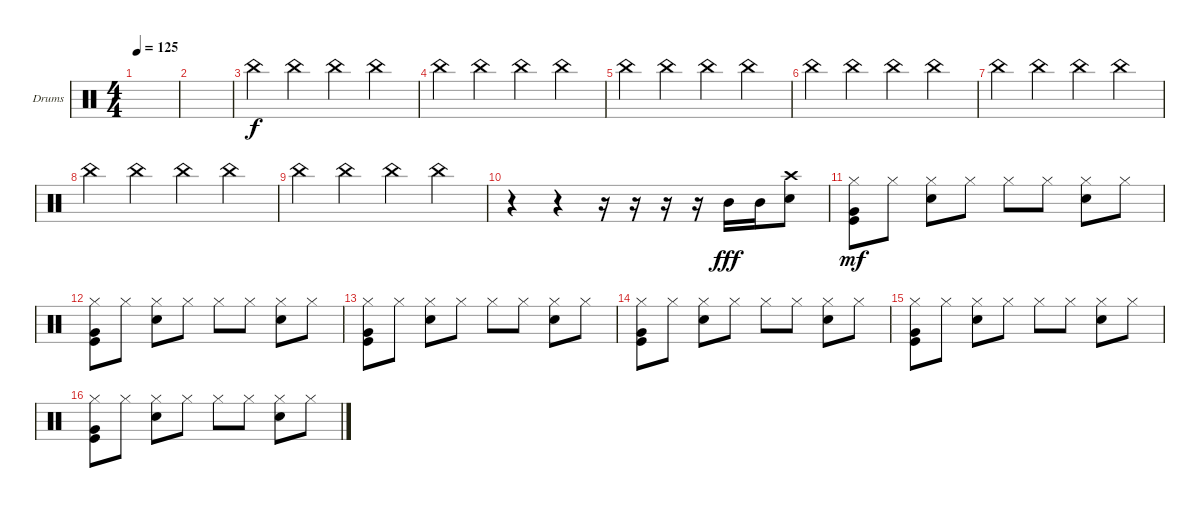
\defaultSystemsLayout 4
\bracketExtendMode groupsimilarinstruments
\firstSystemTrackNameOrientation horizontal
\otherSystemsTrackNameOrientation horizontal
\track ("Drumkit" "Drums") {instrument percussion}
\staff {score}
\articulation defaults
\ts (4 4)
\tempo 125
\clef neutral
\ks c
|
|
\scale
0.474178 "China (hit)".4 "China (hit)".4 "China (hit)".4 "China (hit)".4 |
\scale
0.262911 "China (hit)".4 "China (hit)".4 "China (hit)".4 "China (hit)".4 |
\scale
0.262911 "China (hit)".4 "China (hit)".4 "China (hit)".4 "China (hit)".4 |
\scale
0.333333 "China (hit)".4 "China (hit)".4 "China (hit)".4 "China (hit)".4 |
\scale
0.333333 "China (hit)".4 "China (hit)".4 "China (hit)".4 "China (hit)".4 |
\scale
0.333333 "China (hit)".4 "China (hit)".4 "China (hit)".4 "China (hit)".4 |
"China (hit)".4 "China (hit)".4 "China (hit)".4 "China (hit)".4 |
r.4 r.4 r.16 r.16 r.16 r.16 "Mid Tom (hit)".16{dy fff} "Mid Tom (hit)".16 ("Crash high (hit)" "Snare (hit) 2").8 |
("Hi-Hat (closed)" "Very Low Tom (hit)" "Kick (hit)").8{dy mf} "Hi-Hat (closed)".8 ("Hi-Hat (closed)" "Snare (hit) 2").8 "Hi-Hat (closed)".8 "Hi-Hat (closed)".8 "Hi-Hat (closed)".8 ("Hi-Hat (closed)" "Snare (hit) 2").8 "Hi-Hat (closed)".8 |
("Hi-Hat (closed)" "Very Low Tom (hit)" "Kick (hit)").8 "Hi-Hat (closed)".8 ("Hi-Hat (closed)" "Snare (hit) 2").8 "Hi-Hat (closed)".8 "Hi-Hat (closed)".8 "Hi-Hat (closed)".8 ("Hi-Hat (closed)" "Snare (hit) 2").8 "Hi-Hat (closed)".8 |
("Hi-Hat (closed)" "Very Low Tom (hit)" "Kick (hit)").8 "Hi-Hat (closed)".8 ("Hi-Hat (closed)" "Snare (hit) 2").8 "Hi-Hat (closed)".8 "Hi-Hat (closed)".8 "Hi-Hat (closed)".8 ("Hi-Hat (closed)" "Snare (hit) 2").8 "Hi-Hat (closed)".8 |
("Hi-Hat (closed)" "Very Low Tom (hit)" "Kick (hit)").8 "Hi-Hat (closed)".8 ("Hi-Hat (closed)" "Snare (hit) 2").8 "Hi-Hat (closed)".8 "Hi-Hat (closed)".8 "Hi-Hat (closed)".8 ("Hi-Hat (closed)" "Snare (hit) 2").8 "Hi-Hat (closed)".8 |
("Hi-Hat (closed)" "Very Low Tom (hit)" "Kick (hit)").8 "Hi-Hat (closed)".8 ("Hi-Hat (closed)" "Snare (hit) 2").8 "Hi-Hat (closed)".8 "Hi-Hat (closed)".8 "Hi-Hat (closed)".8 ("Hi-Hat (closed)" "Snare (hit) 2").8 "Hi-Hat (closed)".8 |
("Hi-Hat (closed)" "Very Low Tom (hit)" "Kick (hit)").8 "Hi-Hat (closed)".8 ("Hi-Hat (closed)" "Snare (hit) 2").8 "Hi-Hat (closed)".8 "Hi-Hat (closed)".8 "Hi-Hat (closed)".8 ("Hi-Hat (closed)" "Snare (hit) 2").8 "Hi-Hat (closed)".8
